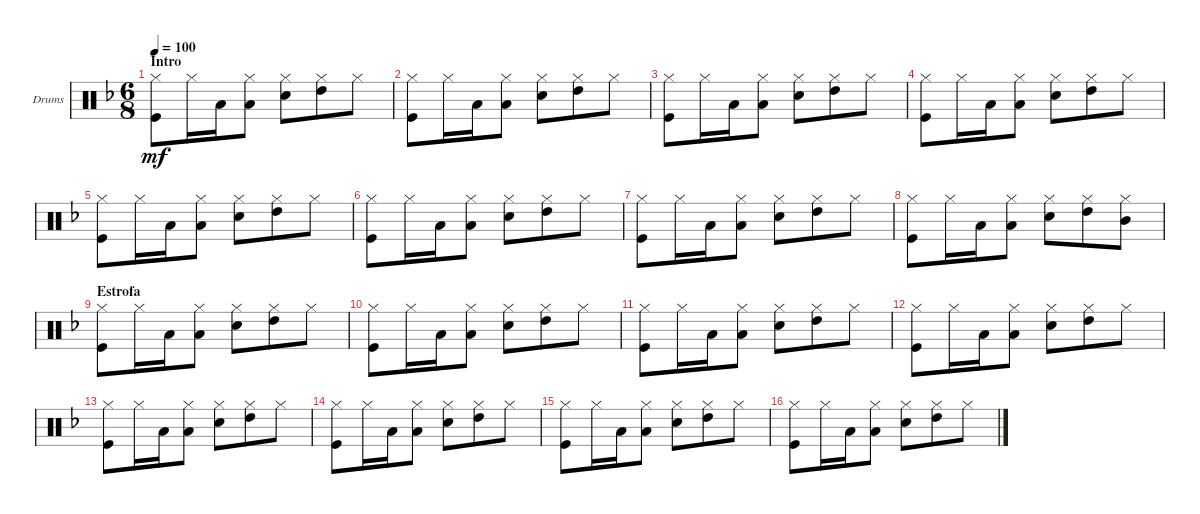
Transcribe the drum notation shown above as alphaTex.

\defaultSystemsLayout 4
\bracketExtendMode groupsimilarinstruments
\firstSystemTrackNameOrientation horizontal
\otherSystemsTrackNameOrientation horizontal
\track ("Drumkit" "Drums") {instrument percussion}
\staff {score}
\articulation defaults
\ts (6 8)
\section ("" "Intro")
\tempo 100
\clef neutral
\ks dminor
("Kick (hit)" "Hi-Hat (closed)").8{dy mf} "Hi-Hat (closed)".16 "Low Tom (hit)".16 ("Hi-Hat (closed)" "Low Tom (hit)").8 ("Hi-Hat (closed)" "Snare (hit) 2").8 ("Hi-Hat (closed)" "High Tom (hit)").8 "Hi-Hat (closed)".8 |
("Kick (hit)" "Hi-Hat (closed)").8 "Hi-Hat (closed)".16 "Low Tom (hit)".16 ("Hi-Hat (closed)" "Low Tom (hit)").8 ("Hi-Hat (closed)" "Snare (hit) 2").8 ("Hi-Hat (closed)" "High Tom (hit)").8 "Hi-Hat (closed)".8 |
("Kick (hit)" "Hi-Hat (closed)").8 "Hi-Hat (closed)".16 "Low Tom (hit)".16 ("Hi-Hat (closed)" "Low Tom (hit)").8 ("Hi-Hat (closed)" "Snare (hit) 2").8 ("Hi-Hat (closed)" "High Tom (hit)").8 "Hi-Hat (closed)".8 |
("Kick (hit)" "Hi-Hat (closed)").8 "Hi-Hat (closed)".16 "Low Tom (hit)".16 ("Hi-Hat (closed)" "Low Tom (hit)").8 ("Hi-Hat (closed)" "Snare (hit) 2").8 ("Hi-Hat (closed)" "High Tom (hit)").8 "Hi-Hat (closed)".8 |
("Kick (hit)" "Hi-Hat (closed)").8 "Hi-Hat (closed)".16 "Low Tom (hit)".16 ("Hi-Hat (closed)" "Low Tom (hit)").8 ("Hi-Hat (closed)" "Snare (hit) 2").8 ("Hi-Hat (closed)" "High Tom (hit)").8 "Hi-Hat (closed)".8 |
("Kick (hit)" "Hi-Hat (closed)").8 "Hi-Hat (closed)".16 "Low Tom (hit)".16 ("Hi-Hat (closed)" "Low Tom (hit)").8 ("Hi-Hat (closed)" "Snare (hit) 2").8 ("Hi-Hat (closed)" "High Tom (hit)").8 "Hi-Hat (closed)".8 |
("Kick (hit)" "Hi-Hat (closed)").8 "Hi-Hat (closed)".16 "Low Tom (hit)".16 ("Hi-Hat (closed)" "Low Tom (hit)").8 ("Hi-Hat (closed)" "Snare (hit) 2").8 ("Hi-Hat (closed)" "High Tom (hit)").8 "Hi-Hat (closed)".8 |
("Kick (hit)" "Hi-Hat (closed)").8 "Hi-Hat (closed)".16 "Low Tom (hit)".16 ("Hi-Hat (closed)" "Low Tom (hit)").8 ("Hi-Hat (closed)" "Snare (hit) 2").8 ("Hi-Hat (closed)" "High Tom (hit)").8 ("Hi-Hat (closed)" "Mid Tom (hit)").8 |
\section ("" "Estrofa")
("Kick (hit)" "Hi-Hat (closed)").8 "Hi-Hat (closed)".16 "Low Tom (hit)".16 ("Hi-Hat (closed)" "Low Tom (hit)").8 ("Hi-Hat (closed)" "Snare (hit) 2").8 ("Hi-Hat (closed)" "High Tom (hit)").8 "Hi-Hat (closed)".8 |
("Kick (hit)" "Hi-Hat (closed)").8 "Hi-Hat (closed)".16 "Low Tom (hit)".16 ("Hi-Hat (closed)" "Low Tom (hit)").8 ("Hi-Hat (closed)" "Snare (hit) 2").8 ("Hi-Hat (closed)" "High Tom (hit)").8 "Hi-Hat (closed)".8 |
("Kick (hit)" "Hi-Hat (closed)").8 "Hi-Hat (closed)".16 "Low Tom (hit)".16 ("Hi-Hat (closed)" "Low Tom (hit)").8 ("Hi-Hat (closed)" "Snare (hit) 2").8 ("Hi-Hat (closed)" "High Tom (hit)").8 "Hi-Hat (closed)".8 |
("Kick (hit)" "Hi-Hat (closed)").8 "Hi-Hat (closed)".16 "Low Tom (hit)".16 ("Hi-Hat (closed)" "Low Tom (hit)").8 ("Hi-Hat (closed)" "Snare (hit) 2").8 ("Hi-Hat (closed)" "High Tom (hit)").8 "Hi-Hat (closed)".8 |
("Kick (hit)" "Hi-Hat (closed)").8 "Hi-Hat (closed)".16 "Low Tom (hit)".16 ("Hi-Hat (closed)" "Low Tom (hit)").8 ("Hi-Hat (closed)" "Snare (hit) 2").8 ("Hi-Hat (closed)" "High Tom (hit)").8 "Hi-Hat (closed)".8 |
("Kick (hit)" "Hi-Hat (closed)").8 "Hi-Hat (closed)".16 "Low Tom (hit)".16 ("Hi-Hat (closed)" "Low Tom (hit)").8 ("Hi-Hat (closed)" "Snare (hit) 2").8 ("Hi-Hat (closed)" "High Tom (hit)").8 "Hi-Hat (closed)".8 |
("Kick (hit)" "Hi-Hat (closed)").8 "Hi-Hat (closed)".16 "Low Tom (hit)".16 ("Hi-Hat (closed)" "Low Tom (hit)").8 ("Hi-Hat (closed)" "Snare (hit) 2").8 ("Hi-Hat (closed)" "High Tom (hit)").8 "Hi-Hat (closed)".8 |
("Kick (hit)" "Hi-Hat (closed)").8 "Hi-Hat (closed)".16 "Low Tom (hit)".16 ("Hi-Hat (closed)" "Low Tom (hit)").8 ("Hi-Hat (closed)" "Snare (hit) 2").8 ("Hi-Hat (closed)" "High Tom (hit)").8 "Hi-Hat (closed)".8
